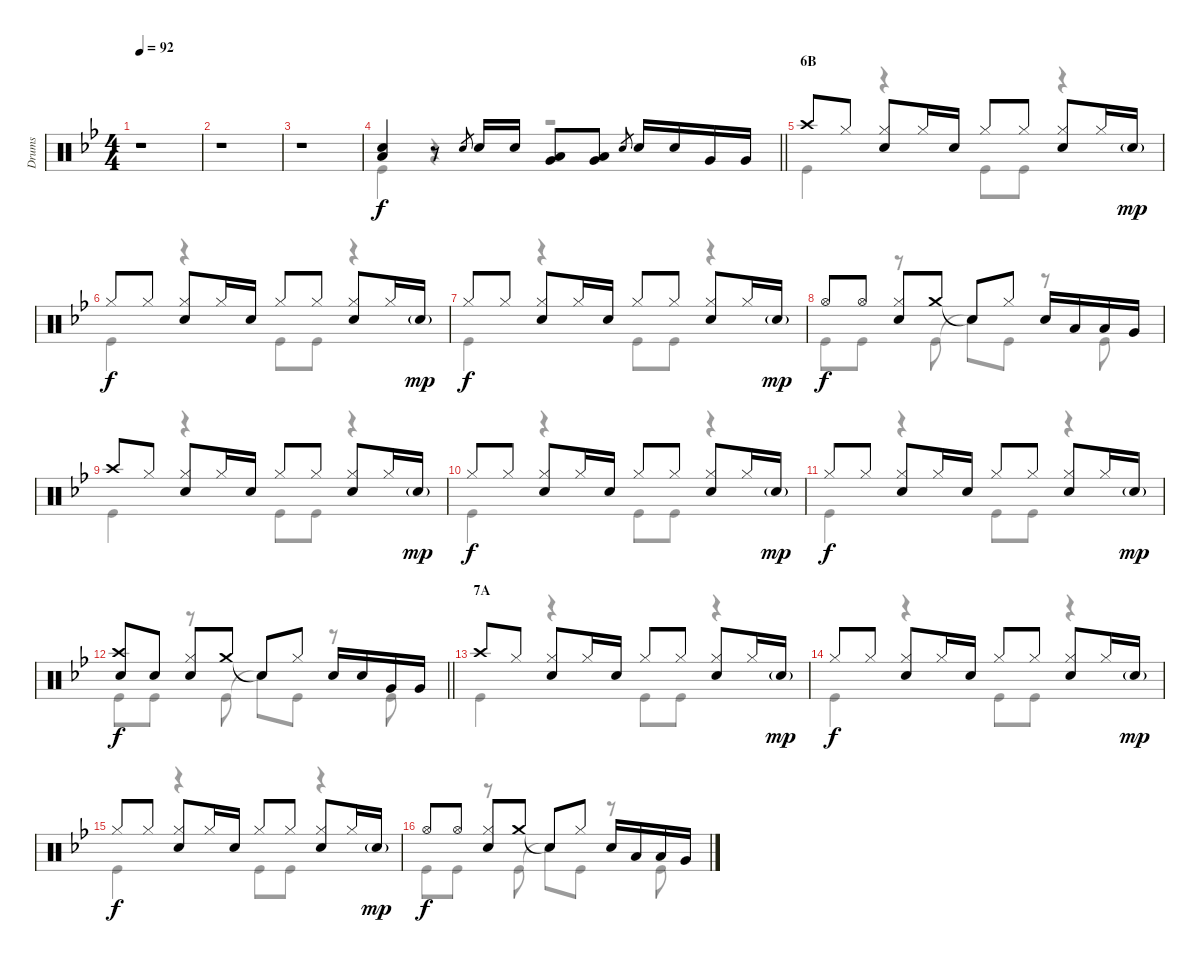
\track ("Drums" "Drums") {instrument percussion}
\staff {score}
\articulation defaults
\voice
\ts (4 4)
\tempo 92
\clef neutral
\ks bb
r.1{dy fff} |
r.1 |
r.1 |
\barLineRight lightlight
("Low Tom (hit)" "Snare (hit) 2").4{dy f} r.8 "Snare (hit) 2".8{gr} "Snare (hit) 2".16 "Snare (hit) 2".16 ("Low Tom (hit)" "Very Low Tom (hit)").8 ("Low Tom (hit)" "Very Low Tom (hit)").8 "Snare (hit) 2".8{gr} "Snare (hit) 2".16 "Snare (hit) 2".16 "Very Low Tom (hit)".16 "Very Low Tom (hit)".16 |
\section ("" "6B")
"Crash high (hit)".8 "Hi-Hat (closed)".8 ("Hi-Hat (closed)" "Snare (hit) 2").8 "Hi-Hat (closed)".16 "Snare (hit) 2".16 "Hi-Hat (closed)".8 "Hi-Hat (closed)".8 ("Hi-Hat (closed)" "Snare (hit) 2").8 "Hi-Hat (closed)".16 "Snare (hit) 2"{g}.16{dy mp} |
"Hi-Hat (closed)".8{dy f} "Hi-Hat (closed)".8 ("Hi-Hat (closed)" "Snare (hit) 2").8 "Hi-Hat (closed)".16 "Snare (hit) 2".16 "Hi-Hat (closed)".8 "Hi-Hat (closed)".8 ("Hi-Hat (closed)" "Snare (hit) 2").8 "Hi-Hat (closed)".16 "Snare (hit) 2"{g}.16{dy mp} |
"Hi-Hat (closed)".8{dy f} "Hi-Hat (closed)".8 ("Hi-Hat (closed)" "Snare (hit) 2").8 "Hi-Hat (closed)".16 "Snare (hit) 2".16 "Hi-Hat (closed)".8 "Hi-Hat (closed)".8 ("Hi-Hat (closed)" "Snare (hit) 2").8 "Hi-Hat (closed)".16 "Snare (hit) 2"{g}.16{dy mp} |
"Hi-Hat (open)".8{dy f} "Hi-Hat (open)".8 ("Hi-Hat (closed)" "Snare (hit) 2").8 "Crash medium (hit)".8 "Snare (hit)"{t}.8 "Hi-Hat (closed)".8 "Snare (hit) 2".16 "Low Tom (hit)".16 "Low Tom (hit)".16 "Very Low Tom (hit)".16 |
"Crash high (hit)".8 "Hi-Hat (closed)".8 ("Hi-Hat (closed)" "Snare (hit) 2").8 "Hi-Hat (closed)".16 "Snare (hit) 2".16 "Hi-Hat (closed)".8 "Hi-Hat (closed)".8 ("Hi-Hat (closed)" "Snare (hit) 2").8 "Hi-Hat (closed)".16 "Snare (hit) 2"{g}.16{dy mp} |
"Hi-Hat (closed)".8{dy f} "Hi-Hat (closed)".8 ("Hi-Hat (closed)" "Snare (hit) 2").8 "Hi-Hat (closed)".16 "Snare (hit) 2".16 "Hi-Hat (closed)".8 "Hi-Hat (closed)".8 ("Hi-Hat (closed)" "Snare (hit) 2").8 "Hi-Hat (closed)".16 "Snare (hit) 2"{g}.16{dy mp} |
"Hi-Hat (closed)".8{dy f} "Hi-Hat (closed)".8 ("Hi-Hat (closed)" "Snare (hit) 2").8 "Hi-Hat (closed)".16 "Snare (hit) 2".16 "Hi-Hat (closed)".8 "Hi-Hat (closed)".8 ("Hi-Hat (closed)" "Snare (hit) 2").8 "Hi-Hat (closed)".16 "Snare (hit) 2"{g}.16{dy mp} |
\barLineRight lightlight
("Crash high (hit)" "Snare (hit) 2").8{dy f} "Snare (hit) 2".8 ("Hi-Hat (closed)" "Snare (hit) 2").8 "Crash medium (hit)".8 "Snare (hit)"{t}.8 "Hi-Hat (closed)".8 "Snare (hit) 2".16 "Snare (hit) 2".16 "Very Low Tom (hit)".16 "Very Low Tom (hit)".16 |
\section ("" "7A")
"Crash high (hit)".8 "Hi-Hat (closed)".8 ("Hi-Hat (closed)" "Snare (hit) 2").8 "Hi-Hat (closed)".16 "Snare (hit) 2".16 "Hi-Hat (closed)".8 "Hi-Hat (closed)".8 ("Hi-Hat (closed)" "Snare (hit) 2").8 "Hi-Hat (closed)".16 "Snare (hit) 2"{g}.16{dy mp} |
"Hi-Hat (closed)".8{dy f} "Hi-Hat (closed)".8 ("Hi-Hat (closed)" "Snare (hit) 2").8 "Hi-Hat (closed)".16 "Snare (hit) 2".16 "Hi-Hat (closed)".8 "Hi-Hat (closed)".8 ("Hi-Hat (closed)" "Snare (hit) 2").8 "Hi-Hat (closed)".16 "Snare (hit) 2"{g}.16{dy mp} |
"Hi-Hat (closed)".8{dy f} "Hi-Hat (closed)".8 ("Hi-Hat (closed)" "Snare (hit) 2").8 "Hi-Hat (closed)".16 "Snare (hit) 2".16 "Hi-Hat (closed)".8 "Hi-Hat (closed)".8 ("Hi-Hat (closed)" "Snare (hit) 2").8 "Hi-Hat (closed)".16 "Snare (hit) 2"{g}.16{dy mp} |
"Hi-Hat (open)".8{dy f} "Hi-Hat (open)".8 ("Hi-Hat (closed)" "Snare (hit) 2").8 "Crash medium (hit)".8 "Snare (hit)"{t}.8 "Hi-Hat (closed)".8 "Snare (hit) 2".16 "Low Tom (hit)".16 "Low Tom (hit)".16 "Very Low Tom (hit)".16
\voice
\clef neutral
\ottava regular
\simile none
\ks bb
r.1{dy f} |
r.1 |
r.1 |
\barLineRight lightlight "Kick (hit)".4
r.4 r.2 |
"Kick (hit)".4 r.4 "Kick (hit)".8 "Kick (hit)".8 r.4 |
"Kick (hit)".4 r.4 "Kick (hit)".8 "Kick (hit)".8 r.4 |
"Kick (hit)".4 r.4 "Kick (hit)".8 "Kick (hit)".8 r.4 |
"Kick (hit)".8 "Kick (hit)".8 r.8 "Kick (hit)".8 "Snare (hit)"{t}.8 "Kick (hit)".8 r.8 "Kick (hit)".8 |
"Kick (hit)".4 r.4 "Kick (hit)".8 "Kick (hit)".8 r.4 |
"Kick (hit)".4 r.4 "Kick (hit)".8 "Kick (hit)".8 r.4 |
"Kick (hit)".4 r.4 "Kick (hit)".8 "Kick (hit)".8 r.4 |
\barLineRight lightlight "Kick (hit)".8 "Kick (hit)".8
r.8 "Kick (hit)".8 "Snare (hit)"{t}.8 "Kick (hit)".8 r.8 "Kick (hit)".8 |
"Kick (hit)".4 r.4 "Kick (hit)".8 "Kick (hit)".8 r.4 |
"Kick (hit)".4 r.4 "Kick (hit)".8 "Kick (hit)".8 r.4 |
"Kick (hit)".4 r.4 "Kick (hit)".8 "Kick (hit)".8 r.4 |
"Kick (hit)".8 "Kick (hit)".8 r.8 "Kick (hit)".8 "Snare (hit)"{t}.8 "Kick (hit)".8 r.8 "Kick (hit)".8
